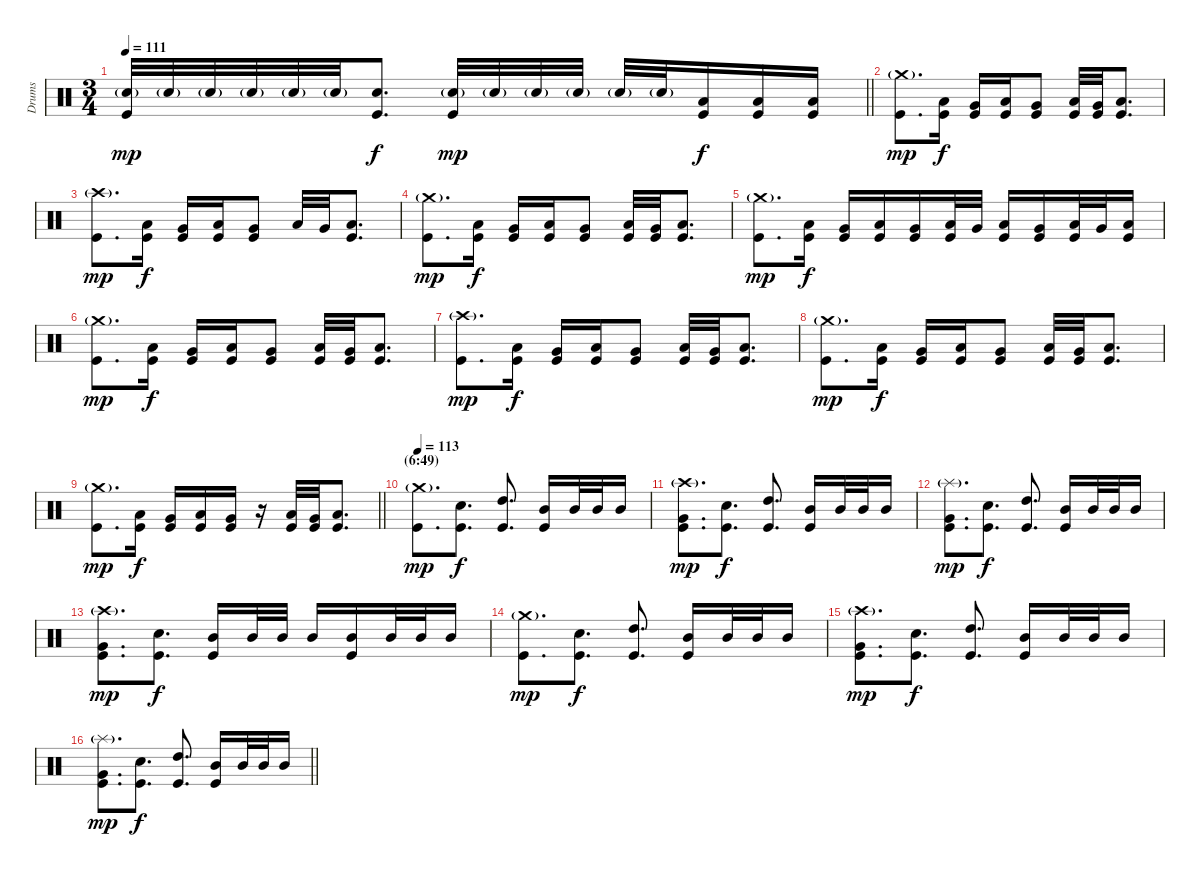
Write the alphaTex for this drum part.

\track ("Drums" "Drums") {instrument percussion}
\staff {score}
\articulation defaults
\ts (3 4)
\tempo 111
\clef neutral
\barLineRight lightlight
\ks c
("Snare (hit) 2"{g} "Kick (hit)").32{dy mp} "Snare (hit) 2"{g}.32 "Snare (hit) 2"{g}.32 "Snare (hit) 2"{g}.32 "Snare (hit) 2"{g}.32 "Snare (hit) 2"{g}.32 ("Snare (hit) 2" "Kick (hit)").8{d dy f} ("Snare (hit) 2"{g} "Kick (hit)").32{dy mp} "Snare (hit) 2"{g}.32 "Snare (hit) 2"{g}.32 "Snare (hit) 2"{g}.32 "Snare (hit) 2"{g}.32 "Snare (hit) 2"{g}.32 ("Low Tom (hit)" "Kick (hit)").16{dy f} ("Low Tom (hit)" "Kick (hit)").16 ("Low Tom (hit)" "Kick (hit)").16 |
("Crash medium (hit)"{g} "Kick (hit)").8{d dy mp} ("Low Tom (hit)" "Kick (hit)").16{dy f} ("Very Low Tom (hit)" "Kick (hit)").16 ("Low Tom (hit)" "Kick (hit)").16 ("Very Low Tom (hit)" "Kick (hit)").8 ("Low Tom (hit)" "Kick (hit)").32 ("Very Low Tom (hit)" "Kick (hit)").32 ("Low Tom (hit)" "Kick (hit)").8{d} |
("Crash high (hit)"{g} "Kick (hit)").8{d dy mp} ("Low Tom (hit)" "Kick (hit)").16{dy f} ("Very Low Tom (hit)" "Kick (hit)").16 ("Low Tom (hit)" "Kick (hit)").16 ("Very Low Tom (hit)" "Kick (hit)").8 "Low Tom (hit)".32 "Very Low Tom (hit)".32 ("Low Tom (hit)" "Kick (hit)").8{d} |
("Crash medium (hit)"{g} "Kick (hit)").8{d dy mp} ("Low Tom (hit)" "Kick (hit)").16{dy f} ("Very Low Tom (hit)" "Kick (hit)").16 ("Low Tom (hit)" "Kick (hit)").16 ("Very Low Tom (hit)" "Kick (hit)").8 ("Low Tom (hit)" "Kick (hit)").32 ("Very Low Tom (hit)" "Kick (hit)").32 ("Low Tom (hit)" "Kick (hit)").8{d} |
("Crash medium (hit)"{g} "Kick (hit)").8{d dy mp} ("Low Tom (hit)" "Kick (hit)").16{dy f} ("Very Low Tom (hit)" "Kick (hit)").16 ("Low Tom (hit)" "Kick (hit)").16 ("Very Low Tom (hit)" "Kick (hit)").16 ("Low Tom (hit)" "Kick (hit)").32 "Very Low Tom (hit)".32 ("Low Tom (hit)" "Kick (hit)").16 ("Very Low Tom (hit)" "Kick (hit)").16 ("Low Tom (hit)" "Kick (hit)").32 "Very Low Tom (hit)".32 ("Low Tom (hit)" "Kick (hit)").16 |
("Crash medium (hit)"{g} "Kick (hit)").8{d dy mp} ("Low Tom (hit)" "Kick (hit)").16{dy f} ("Very Low Tom (hit)" "Kick (hit)").16 ("Low Tom (hit)" "Kick (hit)").16 ("Very Low Tom (hit)" "Kick (hit)").8 ("Low Tom (hit)" "Kick (hit)").32 ("Very Low Tom (hit)" "Kick (hit)").32 ("Low Tom (hit)" "Kick (hit)").8{d} |
("Crash high (hit)"{g} "Kick (hit)").8{d dy mp} ("Low Tom (hit)" "Kick (hit)").16{dy f} ("Very Low Tom (hit)" "Kick (hit)").16 ("Low Tom (hit)" "Kick (hit)").16 ("Very Low Tom (hit)" "Kick (hit)").8 ("Low Tom (hit)" "Kick (hit)").32 ("Very Low Tom (hit)" "Kick (hit)").32 ("Low Tom (hit)" "Kick (hit)").8{d} |
("Crash medium (hit)"{g} "Kick (hit)").8{d dy mp} ("Low Tom (hit)" "Kick (hit)").16{dy f} ("Very Low Tom (hit)" "Kick (hit)").16 ("Low Tom (hit)" "Kick (hit)").16 ("Very Low Tom (hit)" "Kick (hit)").8 ("Low Tom (hit)" "Kick (hit)").32 ("Very Low Tom (hit)" "Kick (hit)").32 ("Low Tom (hit)" "Kick (hit)").8{d} |
\barLineRight lightlight
("Crash medium (hit)"{g} "Kick (hit)").8{d dy mp} ("Low Tom (hit)" "Kick (hit)").16{dy f} ("Very Low Tom (hit)" "Kick (hit)").16 ("Low Tom (hit)" "Kick (hit)").16 ("Very Low Tom (hit)" "Kick (hit)").16 r.16 ("Low Tom (hit)" "Kick (hit)").32 ("Very Low Tom (hit)" "Kick (hit)").32 ("Low Tom (hit)" "Kick (hit)").8{d} |
\section ("" "(6:49)")
\tempo 113
("Crash medium (hit)"{g} "Kick (hit)").8{d dy mp} ("Snare (hit) 2" "Kick (hit)").8{d dy f} ("High Tom (hit)" "Kick (hit)").8{d} ("Mid Tom (hit)" "Kick (hit)").16 "Mid Tom (hit)".32 "Mid Tom (hit)".32 "Mid Tom (hit)".16 |
("Crash high (hit)"{g} "Very Low Tom (hit)" "Kick (hit)").8{d dy mp} ("Snare (hit) 2" "Kick (hit)").8{d dy f} ("High Tom (hit)" "Kick (hit)").8{d} ("Mid Tom (hit)" "Kick (hit)").16 "Mid Tom (hit)".32 "Mid Tom (hit)".32 "Mid Tom (hit)".16 |
("Splash (hit)"{g} "Very Low Tom (hit)" "Kick (hit)").8{d dy mp} ("Snare (hit) 2" "Kick (hit)").8{d dy f} ("High Tom (hit)" "Kick (hit)").8{d} ("Mid Tom (hit)" "Kick (hit)").16 "Mid Tom (hit)".32 "Mid Tom (hit)".32 "Mid Tom (hit)".16 |
("Crash high (hit)"{g} "Very Low Tom (hit)" "Kick (hit)").8{d dy mp} ("Snare (hit) 2" "Kick (hit)").8{d dy f} ("Mid Tom (hit)" "Kick (hit)").16 "Mid Tom (hit)".32 "Mid Tom (hit)".32 "Mid Tom (hit)".16 ("Mid Tom (hit)" "Kick (hit)").16 "Mid Tom (hit)".32 "Mid Tom (hit)".32 "Mid Tom (hit)".16 |
("Crash medium (hit)"{g} "Kick (hit)").8{d dy mp} ("Snare (hit) 2" "Kick (hit)").8{d dy f} ("High Tom (hit)" "Kick (hit)").8{d} ("Mid Tom (hit)" "Kick (hit)").16 "Mid Tom (hit)".32 "Mid Tom (hit)".32 "Mid Tom (hit)".16 |
("Crash high (hit)"{g} "Very Low Tom (hit)" "Kick (hit)").8{d dy mp} ("Snare (hit) 2" "Kick (hit)").8{d dy f} ("High Tom (hit)" "Kick (hit)").8{d} ("Mid Tom (hit)" "Kick (hit)").16 "Mid Tom (hit)".32 "Mid Tom (hit)".32 "Mid Tom (hit)".16 |
\barLineRight lightlight
("Splash (hit)"{g} "Very Low Tom (hit)" "Kick (hit)").8{d dy mp} ("Snare (hit) 2" "Kick (hit)").8{d dy f} ("High Tom (hit)" "Kick (hit)").8{d} ("Mid Tom (hit)" "Kick (hit)").16 "Mid Tom (hit)".32 "Mid Tom (hit)".32 "Mid Tom (hit)".16
